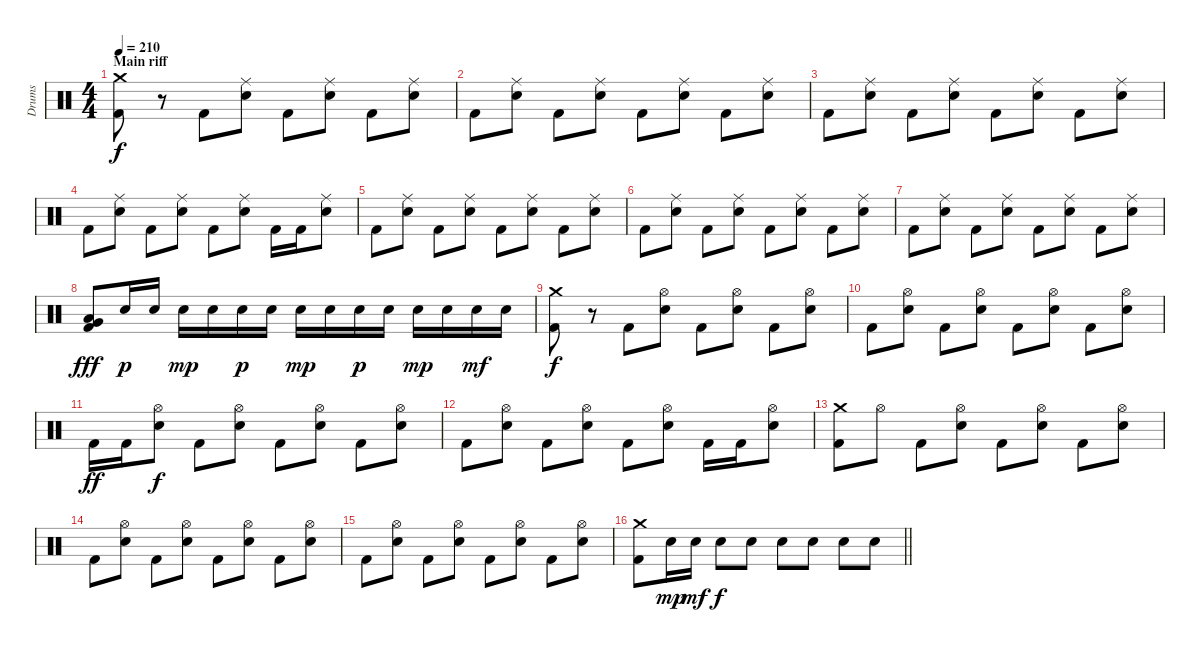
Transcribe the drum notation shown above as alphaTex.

\track ("Drums" "Drums") {instrument percussion}
\staff {score}
\articulation defaults
\ts (4 4)
\section ("" "Main riff")
\tempo 210
\clef neutral
\ks c
("Crash medium (hit)" "Kick (hit) 2").8{dy f} r.8 "Kick (hit) 2".8 ("Ride (middle)" "Electric Snare (hit)").8 "Kick (hit) 2".8 ("Ride (middle)" "Electric Snare (hit)").8 "Kick (hit) 2".8 ("Ride (middle)" "Electric Snare (hit)").8 |
"Kick (hit) 2".8 ("Ride (middle)" "Electric Snare (hit)").8 "Kick (hit) 2".8 ("Ride (middle)" "Electric Snare (hit)").8 "Kick (hit) 2".8 ("Ride (middle)" "Electric Snare (hit)").8 "Kick (hit) 2".8 ("Ride (middle)" "Electric Snare (hit)").8 |
"Kick (hit) 2".8 ("Ride (middle)" "Electric Snare (hit)").8 "Kick (hit) 2".8 ("Ride (middle)" "Electric Snare (hit)").8 "Kick (hit) 2".8 ("Ride (middle)" "Electric Snare (hit)").8 "Kick (hit) 2".8 ("Ride (middle)" "Electric Snare (hit)").8 |
"Kick (hit) 2".8 ("Ride (middle)" "Electric Snare (hit)").8 "Kick (hit) 2".8 ("Ride (middle)" "Electric Snare (hit)").8 "Kick (hit) 2".8 ("Ride (middle)" "Electric Snare (hit)").8 "Kick (hit) 2".16 "Kick (hit) 2".16 ("Ride (middle)" "Electric Snare (hit)").8 |
"Kick (hit) 2".8 ("Ride (middle)" "Electric Snare (hit)").8 "Kick (hit) 2".8 ("Ride (middle)" "Electric Snare (hit)").8 "Kick (hit) 2".8 ("Ride (middle)" "Electric Snare (hit)").8 "Kick (hit) 2".8 ("Ride (middle)" "Electric Snare (hit)").8 |
"Kick (hit) 2".8 ("Ride (middle)" "Electric Snare (hit)").8 "Kick (hit) 2".8 ("Ride (middle)" "Electric Snare (hit)").8 "Kick (hit) 2".8 ("Ride (middle)" "Electric Snare (hit)").8 "Kick (hit) 2".8 ("Ride (middle)" "Electric Snare (hit)").8 |
"Kick (hit) 2".8 ("Ride (middle)" "Electric Snare (hit)").8 "Kick (hit) 2".8 ("Ride (middle)" "Electric Snare (hit)").8 "Kick (hit) 2".8 ("Ride (middle)" "Electric Snare (hit)").8 "Kick (hit) 2".8 ("Ride (middle)" "Electric Snare (hit)").8 |
("Very Low Tom (hit)" "Low Tom (hit)" "Kick (hit) 2").8{dy fff} "Electric Snare (hit)".16{dy p} "Electric Snare (hit)".16 "Electric Snare (hit)".16{dy mp} "Electric Snare (hit)".16 "Electric Snare (hit)".16{dy p} "Electric Snare (hit)".16 "Electric Snare (hit)".16{dy mp} "Electric Snare (hit)".16 "Electric Snare (hit)".16{dy p} "Electric Snare (hit)".16 "Electric Snare (hit)".16{dy mp} "Electric Snare (hit)".16 "Electric Snare (hit)".16{dy mf} "Electric Snare (hit)".16 |
("Crash medium (hit)" "Kick (hit) 2").8{dy f} r.8 "Kick (hit) 2".8 ("Hi-Hat (open)" "Electric Snare (hit)").8 "Kick (hit) 2".8 ("Hi-Hat (open)" "Electric Snare (hit)").8 "Kick (hit) 2".8 ("Hi-Hat (open)" "Electric Snare (hit)").8 |
"Kick (hit) 2".8 ("Hi-Hat (open)" "Electric Snare (hit)").8 "Kick (hit) 2".8 ("Hi-Hat (open)" "Electric Snare (hit)").8 "Kick (hit) 2".8 ("Hi-Hat (open)" "Electric Snare (hit)").8 "Kick (hit) 2".8 ("Hi-Hat (open)" "Electric Snare (hit)").8 |
"Kick (hit) 2".16{dy ff} "Kick (hit) 2".16 ("Hi-Hat (open)" "Electric Snare (hit)").8{dy f} "Kick (hit) 2".8 ("Hi-Hat (open)" "Electric Snare (hit)").8 "Kick (hit) 2".8 ("Hi-Hat (open)" "Electric Snare (hit)").8 "Kick (hit) 2".8 ("Hi-Hat (open)" "Electric Snare (hit)").8 |
"Kick (hit) 2".8 ("Hi-Hat (open)" "Electric Snare (hit)").8 "Kick (hit) 2".8 ("Hi-Hat (open)" "Electric Snare (hit)").8 "Kick (hit) 2".8 ("Hi-Hat (open)" "Electric Snare (hit)").8 "Kick (hit) 2".16 "Kick (hit) 2".16 ("Hi-Hat (open)" "Electric Snare (hit)").8 |
("Crash medium (hit)" "Kick (hit) 2").8 "Hi-Hat (open)".8 "Kick (hit) 2".8 ("Hi-Hat (open)" "Electric Snare (hit)").8 "Kick (hit) 2".8 ("Hi-Hat (open)" "Electric Snare (hit)").8 "Kick (hit) 2".8 ("Hi-Hat (open)" "Electric Snare (hit)").8 |
"Kick (hit) 2".8 ("Hi-Hat (open)" "Electric Snare (hit)").8 "Kick (hit) 2".8 ("Hi-Hat (open)" "Electric Snare (hit)").8 "Kick (hit) 2".8 ("Hi-Hat (open)" "Electric Snare (hit)").8 "Kick (hit) 2".8 ("Hi-Hat (open)" "Electric Snare (hit)").8 |
"Kick (hit) 2".8 ("Hi-Hat (open)" "Electric Snare (hit)").8 "Kick (hit) 2".8 ("Hi-Hat (open)" "Electric Snare (hit)").8 "Kick (hit) 2".8 ("Hi-Hat (open)" "Electric Snare (hit)").8 "Kick (hit) 2".8 ("Hi-Hat (open)" "Electric Snare (hit)").8 |
\barLineRight lightlight
("Crash medium (hit)" "Kick (hit) 2").8 "Electric Snare (hit)".16{dy mp} "Electric Snare (hit)".16{dy mf} "Electric Snare (hit)".8{dy f} "Electric Snare (hit)".8 "Electric Snare (hit)".8 "Electric Snare (hit)".8 "Electric Snare (hit)".8 "Electric Snare (hit)".8
